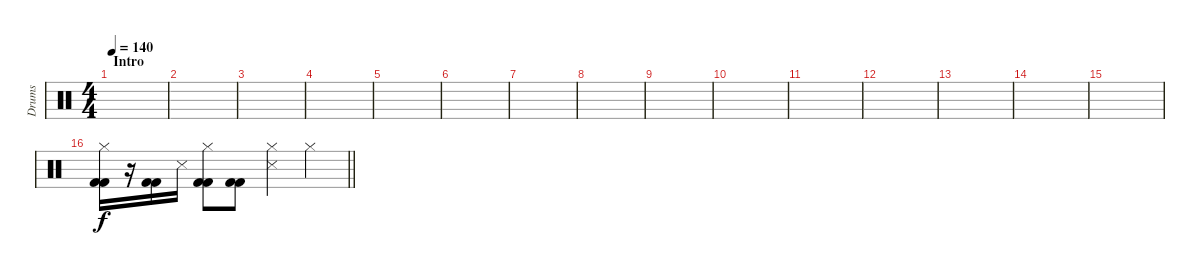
\track ("Drums" "Drums") {instrument percussion}
\staff {score}
\articulation defaults
\ts (4 4)
\section ("" "Intro")
\tempo 140
\clef neutral
\ks c
|
|
|
|
|
|
|
|
|
|
|
|
|
|
|
\barLineRight lightlight
("Kick (hit) 2" "Hi-Hat (closed)" "Kick (hit) 2").16 r.16 ("Kick (hit) 2" "Kick (hit) 2").16 "Snare (side stick) 3".16 ("Kick (hit) 2" "Hi-Hat (closed)" "Kick (hit) 2").8 ("Kick (hit) 2" "Kick (hit) 2").8 ("Snare (side stick) 3" "Hi-Hat (closed)").4 "Hi-Hat (closed)".4
